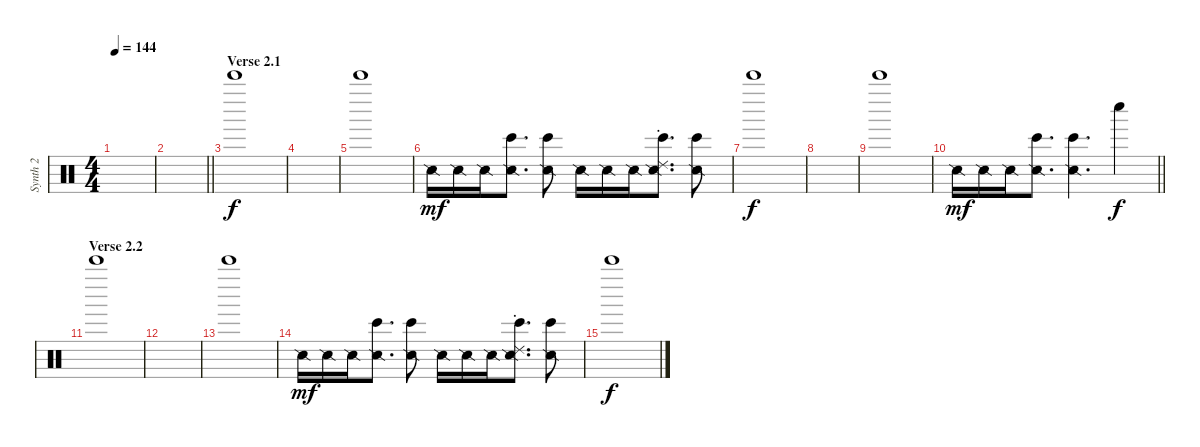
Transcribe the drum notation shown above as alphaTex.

\track ("Synth 2" "Synth 2") {instrument percussion}
\staff {score}
\articulation defaults
\ts (4 4)
\tempo 144
\clef neutral
\ks c
|
\barLineRight lightlight
|
\section ("" "Verse 2.1")
"Bell Tree (hit)".1 |
|
"Bell Tree (hit)".1 |
"Snare (side stick) 2".16{dy mf} "Snare (side stick) 2".16 "Snare (side stick) 2".16 ("Bongo High (hit)" "Snare (side stick) 2").8{d} ("Bongo High (hit)" "Snare (side stick) 2").8 "Snare (side stick) 2".16 "Snare (side stick) 2".16 "Snare (side stick) 2".16 ("Ride (choke) 2" "Bongo High (hit)" "Snare (side stick) 2").8{d} ("Bongo High (hit)" "Snare (side stick) 2").8 |
"Bell Tree (hit)".1{dy f} |
|
"Bell Tree (hit)".1 |
\barLineRight lightlight "Snare (side stick) 2".16{dy mf} "Snare (side stick) 2".16 "Snare (side stick) 2".16
("Bongo High (hit)" "Snare (side stick) 2").8{d} ("Bongo High (hit)" "Snare (side stick) 2").4{d} "Whistle low (hit)".4{dy f} |
\section ("" "Verse 2.2")
"Bell Tree (hit)".1 |
|
"Bell Tree (hit)".1 |
"Snare (side stick) 2".16{dy mf} "Snare (side stick) 2".16 "Snare (side stick) 2".16 ("Bongo High (hit)" "Snare (side stick) 2").8{d} ("Bongo High (hit)" "Snare (side stick) 2").8 "Snare (side stick) 2".16 "Snare (side stick) 2".16 "Snare (side stick) 2".16 ("Ride (choke) 2" "Bongo High (hit)" "Snare (side stick) 2").8{d} ("Bongo High (hit)" "Snare (side stick) 2").8 |
"Bell Tree (hit)".1{dy f}
